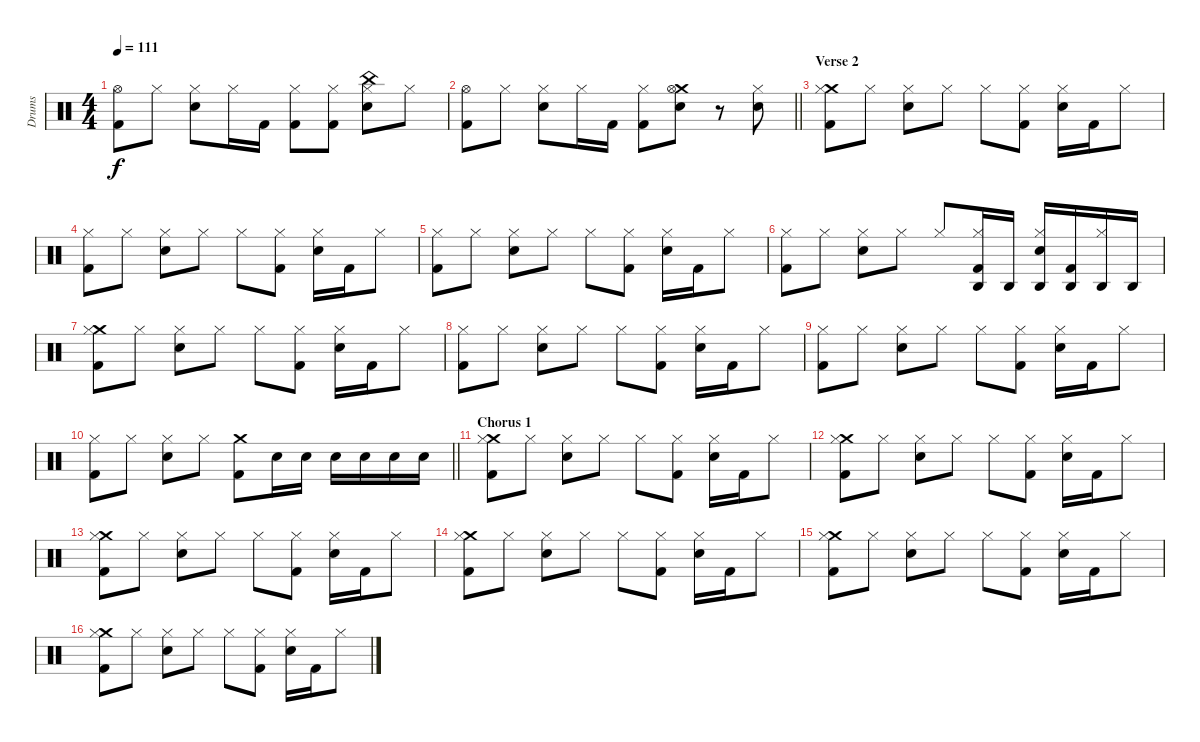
\track ("Drums" "Drums") {instrument percussion}
\staff {score}
\articulation defaults
\ts (4 4)
\tempo 111
\clef neutral
\ks c
("Hi-Hat (open)" "Kick (hit) 2").8{dy f} "Hi-Hat (closed)".8 ("Hi-Hat (closed)" "Snare (hit) 2").8 "Hi-Hat (closed)".16 "Kick (hit) 2".16 ("Hi-Hat (closed)" "Kick (hit) 2").8 ("Hi-Hat (closed)" "Kick (hit) 2").8 ("China (hit)" "Hi-Hat (closed)" "Snare (hit) 2").8 "Hi-Hat (closed)".8 |
\barLineRight lightlight
("Hi-Hat (open)" "Kick (hit) 2").8 "Hi-Hat (closed)".8 ("Hi-Hat (closed)" "Snare (hit) 2").8 "Hi-Hat (closed)".16 "Kick (hit) 2".16 ("Hi-Hat (closed)" "Kick (hit) 2").8 ("Crash medium (hit)" "Hi-Hat (open)" "Snare (hit) 2").8 r.8 ("Snare (hit) 2" "Hi-Hat (closed)").8 |
\section ("" "Verse 2")
("Crash medium (hit)" "Hi-Hat (closed)" "Kick (hit) 2").8 "Hi-Hat (closed)".8 ("Hi-Hat (closed)" "Snare (hit) 2").8 "Hi-Hat (closed)".8 "Hi-Hat (closed)".8 ("Hi-Hat (closed)" "Kick (hit) 2").8 ("Hi-Hat (closed)" "Snare (hit) 2").16 "Kick (hit) 2".16 "Hi-Hat (closed)".8 |
("Hi-Hat (closed)" "Kick (hit) 2").8 "Hi-Hat (closed)".8 ("Hi-Hat (closed)" "Snare (hit) 2").8 "Hi-Hat (closed)".8 "Hi-Hat (closed)".8 ("Hi-Hat (closed)" "Kick (hit) 2").8 ("Hi-Hat (closed)" "Snare (hit) 2").16 "Kick (hit) 2".16 "Hi-Hat (closed)".8 |
("Hi-Hat (closed)" "Kick (hit) 2").8 "Hi-Hat (closed)".8 ("Hi-Hat (closed)" "Snare (hit) 2").8 "Hi-Hat (closed)".8 "Hi-Hat (closed)".8 ("Hi-Hat (closed)" "Kick (hit) 2").8 ("Hi-Hat (closed)" "Snare (hit) 2").16 "Kick (hit) 2".16 "Hi-Hat (closed)".8 |
("Hi-Hat (closed)" "Kick (hit) 2").8 "Hi-Hat (closed)".8 ("Hi-Hat (closed)" "Snare (hit) 2").8 "Hi-Hat (closed)".8 "Hi-Hat (closed)".8 ("Agogo high (hit)" "Hi-Hat (closed)" "Kick (hit) 2").16 "Agogo high (hit)".16 ("Agogo high (hit)" "Hi-Hat (closed)" "Snare (hit) 2").16 ("Agogo high (hit)" "Kick (hit) 2").16 ("Agogo high (hit)" "Hi-Hat (closed)").16 "Agogo high (hit)".16 |
("Crash medium (hit)" "Hi-Hat (closed)" "Kick (hit) 2").8 "Hi-Hat (closed)".8 ("Hi-Hat (closed)" "Snare (hit) 2").8 "Hi-Hat (closed)".8 "Hi-Hat (closed)".8 ("Hi-Hat (closed)" "Kick (hit) 2").8 ("Hi-Hat (closed)" "Snare (hit) 2").16 "Kick (hit) 2".16 "Hi-Hat (closed)".8 |
("Hi-Hat (closed)" "Kick (hit) 2").8 "Hi-Hat (closed)".8 ("Hi-Hat (closed)" "Snare (hit) 2").8 "Hi-Hat (closed)".8 "Hi-Hat (closed)".8 ("Hi-Hat (closed)" "Kick (hit) 2").8 ("Hi-Hat (closed)" "Snare (hit) 2").16 "Kick (hit) 2".16 "Hi-Hat (closed)".8 |
("Hi-Hat (closed)" "Kick (hit) 2").8 "Hi-Hat (closed)".8 ("Hi-Hat (closed)" "Snare (hit) 2").8 "Hi-Hat (closed)".8 "Hi-Hat (closed)".8 ("Hi-Hat (closed)" "Kick (hit) 2").8 ("Hi-Hat (closed)" "Snare (hit) 2").16 "Kick (hit) 2".16 "Hi-Hat (closed)".8 |
\barLineRight lightlight
("Hi-Hat (closed)" "Kick (hit) 2").8 "Hi-Hat (closed)".8 ("Hi-Hat (closed)" "Snare (hit) 2").8 "Hi-Hat (closed)".8 ("Crash medium (hit)" "Kick (hit) 2").8 "Snare (hit) 2".16 "Snare (hit) 2".16 "Snare (hit) 2".16 "Snare (hit) 2".16 "Snare (hit) 2".16 "Snare (hit) 2".16 |
\section ("" "Chorus 1")
("Crash medium (hit)" "Hi-Hat (closed)" "Kick (hit) 2").8 "Hi-Hat (closed)".8 ("Hi-Hat (closed)" "Snare (hit) 2").8 "Hi-Hat (closed)".8 "Hi-Hat (closed)".8 ("Hi-Hat (closed)" "Kick (hit) 2").8 ("Hi-Hat (closed)" "Snare (hit) 2").16 "Kick (hit) 2".16 "Hi-Hat (closed)".8 |
("Crash medium (hit)" "Hi-Hat (closed)" "Kick (hit) 2").8 "Hi-Hat (closed)".8 ("Hi-Hat (closed)" "Snare (hit) 2").8 "Hi-Hat (closed)".8 "Hi-Hat (closed)".8 ("Hi-Hat (closed)" "Kick (hit) 2").8 ("Hi-Hat (closed)" "Snare (hit) 2").16 "Kick (hit) 2".16 "Hi-Hat (closed)".8 |
("Crash medium (hit)" "Hi-Hat (closed)" "Kick (hit) 2").8 "Hi-Hat (closed)".8 ("Hi-Hat (closed)" "Snare (hit) 2").8 "Hi-Hat (closed)".8 "Hi-Hat (closed)".8 ("Hi-Hat (closed)" "Kick (hit) 2").8 ("Hi-Hat (closed)" "Snare (hit) 2").16 "Kick (hit) 2".16 "Hi-Hat (closed)".8 |
("Crash medium (hit)" "Hi-Hat (closed)" "Kick (hit) 2").8 "Hi-Hat (closed)".8 ("Hi-Hat (closed)" "Snare (hit) 2").8 "Hi-Hat (closed)".8 "Hi-Hat (closed)".8 ("Hi-Hat (closed)" "Kick (hit) 2").8 ("Hi-Hat (closed)" "Snare (hit) 2").16 "Kick (hit) 2".16 "Hi-Hat (closed)".8 |
("Crash medium (hit)" "Hi-Hat (closed)" "Kick (hit) 2").8 "Hi-Hat (closed)".8 ("Hi-Hat (closed)" "Snare (hit) 2").8 "Hi-Hat (closed)".8 "Hi-Hat (closed)".8 ("Hi-Hat (closed)" "Kick (hit) 2").8 ("Hi-Hat (closed)" "Snare (hit) 2").16 "Kick (hit) 2".16 "Hi-Hat (closed)".8 |
("Crash medium (hit)" "Hi-Hat (closed)" "Kick (hit) 2").8 "Hi-Hat (closed)".8 ("Hi-Hat (closed)" "Snare (hit) 2").8 "Hi-Hat (closed)".8 "Hi-Hat (closed)".8 ("Hi-Hat (closed)" "Kick (hit) 2").8 ("Hi-Hat (closed)" "Snare (hit) 2").16 "Kick (hit) 2".16 "Hi-Hat (closed)".8
